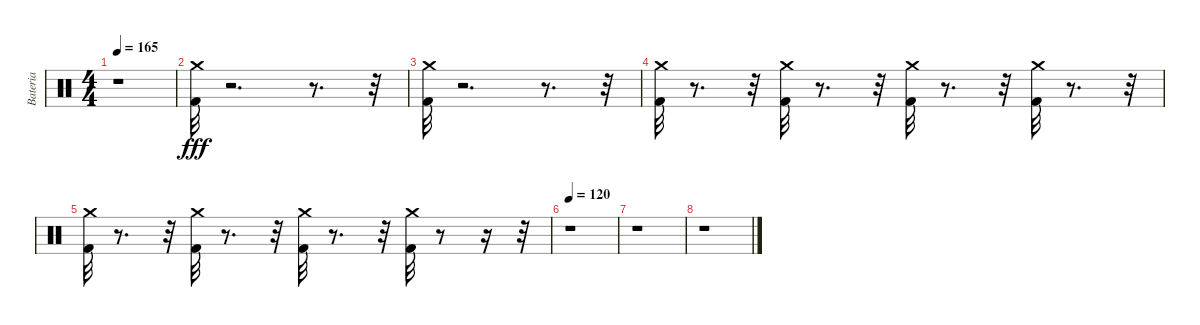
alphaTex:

\track ("Bateria" "Bateria") {instrument percussion}
\staff {score}
\articulation defaults
\ts (4 4)
\tempo 165
\clef neutral
\ks c
r.1{dy fff} |
("Kick (hit) 2" "Crash medium (hit)").32 r.2{d} r.8{d} r.32 |
("Kick (hit) 2" "Crash medium (hit)").32 r.2{d} r.8{d} r.32 |
("Kick (hit) 2" "Crash medium (hit)").32 r.8{d} r.32 ("Kick (hit) 2" "Crash medium (hit)").32 r.8{d} r.32 ("Kick (hit) 2" "Crash medium (hit)").32 r.8{d} r.32 ("Kick (hit) 2" "Crash medium (hit)").32 r.8{d} r.32 |
("Kick (hit) 2" "Crash medium (hit)").32 r.8{d} r.32 ("Kick (hit) 2" "Crash medium (hit)").32 r.8{d} r.32 ("Kick (hit) 2" "Crash medium (hit)").32 r.8{d} r.32 ("Kick (hit) 2" "Crash medium (hit)").32 r.8 r.16 r.32 |
\tempo 120
r.1 |
r.1 |
r.1
